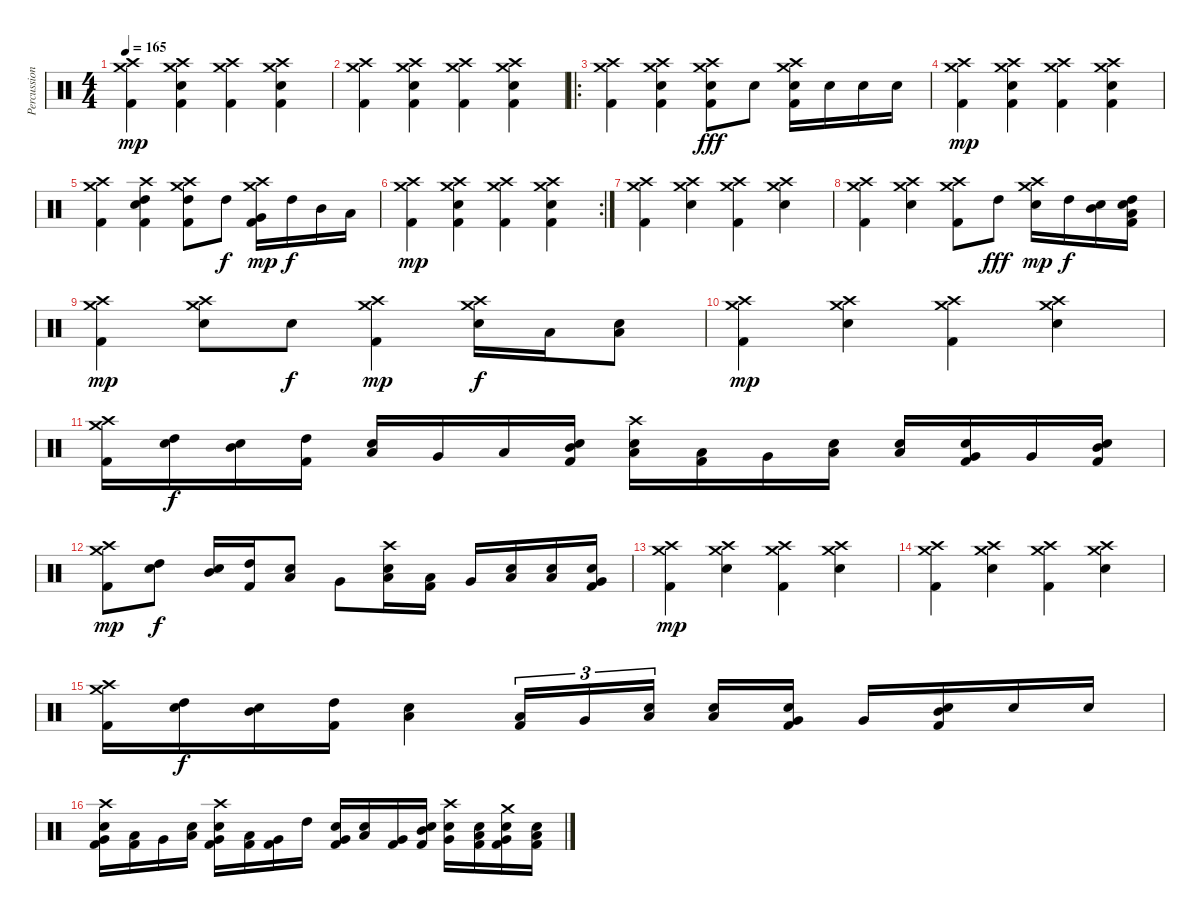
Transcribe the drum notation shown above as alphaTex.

\track ("Percussion" "Percussion") {instrument percussion}
\staff {score}
\articulation defaults
\ts (4 4)
\tempo 165
\clef neutral
\ks c
("Crash high (hit)" "Crash medium (hit)" "Kick (hit) 2").4{dy mp} ("Crash high (hit)" "Crash medium (hit)" "Snare (hit) 2" "Kick (hit) 2").4 ("Crash high (hit)" "Crash medium (hit)" "Kick (hit) 2").4 ("Crash high (hit)" "Crash medium (hit)" "Snare (hit) 2" "Kick (hit) 2").4 |
("Crash high (hit)" "Crash medium (hit)" "Kick (hit) 2").4 ("Crash high (hit)" "Crash medium (hit)" "Snare (hit) 2" "Kick (hit) 2").4 ("Crash high (hit)" "Crash medium (hit)" "Kick (hit) 2").4 ("Crash high (hit)" "Crash medium (hit)" "Snare (hit) 2" "Kick (hit) 2").4 |
\ro
("Crash high (hit)" "Crash medium (hit)" "Kick (hit) 2").4 ("Crash high (hit)" "Crash medium (hit)" "Snare (hit) 2" "Kick (hit) 2").4 ("Crash high (hit)" "Crash medium (hit)" "Snare (hit) 2" "Kick (hit) 2").8{dy fff} "Snare (hit) 2".8 ("Crash high (hit)" "Crash medium (hit)" "Snare (hit) 2" "Kick (hit) 2").16 "Snare (hit) 2".16 "Snare (hit) 2".16 "Snare (hit) 2".16 |
("Crash high (hit)" "Crash medium (hit)" "Kick (hit) 2").4{dy mp} ("Crash high (hit)" "Crash medium (hit)" "Snare (hit) 2" "Kick (hit) 2").4 ("Crash high (hit)" "Crash medium (hit)" "Kick (hit) 2").4 ("Crash high (hit)" "Crash medium (hit)" "Snare (hit) 2" "Kick (hit) 2").4 |
("Crash high (hit)" "Crash medium (hit)" "Kick (hit) 2").4 ("Crash high (hit)" "High Tom (hit)" "Snare (hit) 2" "Kick (hit) 2").4 ("Crash high (hit)" "Crash medium (hit)" "High Tom (hit)" "Kick (hit) 2").8 "High Tom (hit)".8{dy f} ("Crash high (hit)" "Crash medium (hit)" "Very Low Tom (hit)" "Kick (hit) 2").16{dy mp} "High Tom (hit)".16{dy f} "Mid Tom (hit)".16 "Low Tom (hit)".16 |
\rc 2
("Crash high (hit)" "Crash medium (hit)" "Kick (hit) 2").4{dy mp} ("Crash high (hit)" "Crash medium (hit)" "Snare (hit) 2" "Kick (hit) 2").4 ("Crash high (hit)" "Crash medium (hit)" "Kick (hit) 2").4 ("Crash high (hit)" "Crash medium (hit)" "Snare (hit) 2" "Kick (hit) 2").4 |
("Crash high (hit)" "Crash medium (hit)" "Kick (hit) 2").4 ("Crash high (hit)" "Crash medium (hit)" "Snare (hit) 2").4 ("Crash high (hit)" "Crash medium (hit)" "Kick (hit) 2").4 ("Crash high (hit)" "Crash medium (hit)" "Snare (hit) 2").4 |
("Crash high (hit)" "Crash medium (hit)" "Kick (hit) 2").4 ("Crash high (hit)" "Crash medium (hit)" "Snare (hit) 2").4 ("Crash high (hit)" "Crash medium (hit)" "Kick (hit) 2").8 "High Tom (hit)".8{dy fff} ("Crash high (hit)" "Crash medium (hit)" "Snare (hit) 2").16{dy mp} "High Tom (hit)".16{dy f} ("Mid Tom (hit)" "Snare (hit) 2").16 ("High Tom (hit)" "Snare (hit) 2" "Low Tom (hit)" "Kick (hit) 2").16 |
("Crash high (hit)" "Crash medium (hit)" "Kick (hit) 2").4{dy mp} ("Crash high (hit)" "Crash medium (hit)" "Snare (hit) 2").8 "Snare (hit) 2".8{dy f} ("Crash high (hit)" "Crash medium (hit)" "Kick (hit) 2").4{dy mp} ("Crash high (hit)" "Crash medium (hit)" "Snare (hit) 2").16{dy f} "Low Tom (hit)".16 ("Low Tom (hit)" "Snare (hit) 2").8 |
("Crash high (hit)" "Crash medium (hit)" "Kick (hit) 2").4{dy mp} ("Crash high (hit)" "Crash medium (hit)" "Snare (hit) 2").4 ("Crash high (hit)" "Crash medium (hit)" "Kick (hit) 2").4 ("Crash high (hit)" "Crash medium (hit)" "Snare (hit) 2").4 |
("Crash high (hit)" "Crash medium (hit)" "Kick (hit) 2").16 ("High Tom (hit)" "Snare (hit) 2").16{dy f} ("Mid Tom (hit)" "Snare (hit) 2").16 ("High Tom (hit)" "Kick (hit) 2").16 ("Low Tom (hit)" "Snare (hit) 2").16 "Very Low Tom (hit)".16 "Low Tom (hit)".16 ("Mid Tom (hit)" "Snare (hit) 2" "Kick (hit) 2").16 ("Crash high (hit)" "Low Tom (hit)" "Snare (hit) 2").16 ("Low Tom (hit)" "Kick (hit) 2").16 "Very Low Tom (hit)".16 ("Low Tom (hit)" "Snare (hit) 2").16 ("Low Tom (hit)" "Snare (hit) 2").16 ("Very Low Tom (hit)" "Snare (hit) 2" "Kick (hit) 2").16 "Very Low Tom (hit)".16 ("Mid Tom (hit)" "Snare (hit) 2" "Kick (hit) 2").16 |
("Crash high (hit)" "Crash medium (hit)" "Kick (hit) 2").8{dy mp} ("High Tom (hit)" "Snare (hit) 2").8{dy f} ("Mid Tom (hit)" "Snare (hit) 2").16 ("High Tom (hit)" "Kick (hit) 2").16 ("Low Tom (hit)" "Snare (hit) 2").8 "Very Low Tom (hit)".8 ("Crash high (hit)" "Low Tom (hit)" "Snare (hit) 2").16 ("Low Tom (hit)" "Kick (hit) 2").16 "Very Low Tom (hit)".16 ("Low Tom (hit)" "Snare (hit) 2").16 ("Low Tom (hit)" "Snare (hit) 2").16 ("Very Low Tom (hit)" "Snare (hit) 2" "Kick (hit) 2").16 |
("Crash high (hit)" "Crash medium (hit)" "Kick (hit) 2").4{dy mp} ("Crash high (hit)" "Crash medium (hit)" "Snare (hit) 2").4 ("Crash high (hit)" "Crash medium (hit)" "Kick (hit) 2").4 ("Crash high (hit)" "Crash medium (hit)" "Snare (hit) 2").4 |
("Crash high (hit)" "Crash medium (hit)" "Kick (hit) 2").4 ("Crash high (hit)" "Crash medium (hit)" "Snare (hit) 2").4 ("Crash high (hit)" "Crash medium (hit)" "Kick (hit) 2").4 ("Crash high (hit)" "Crash medium (hit)" "Snare (hit) 2").4 |
("Crash high (hit)" "Crash medium (hit)" "Kick (hit) 2").16 ("High Tom (hit)" "Snare (hit) 2").16{dy f} ("Mid Tom (hit)" "Snare (hit) 2").16 ("High Tom (hit)" "Kick (hit) 2").16 ("Low Tom (hit)" "Snare (hit) 2").4 ("Low Tom (hit)" "Kick (hit) 2").16{tu (3 2)} "Very Low Tom (hit)".16{tu (3 2)} ("Low Tom (hit)" "Snare (hit) 2").16{tu (3 2) beam splitsecondary} ("Low Tom (hit)" "Snare (hit) 2").16 ("Very Low Tom (hit)" "Snare (hit) 2" "Kick (hit) 2").16 "Very Low Tom (hit)".16 ("Mid Tom (hit)" "Snare (hit) 2" "Kick (hit) 2").16 "Snare (hit) 2".16 "Snare (hit) 2".16 |
("Crash high (hit)" "Very Low Tom (hit)" "Snare (hit) 2" "Kick (hit) 2").16 ("Low Tom (hit)" "Kick (hit) 2").16 "Very Low Tom (hit)".16 ("Low Tom (hit)" "Snare (hit) 2").16 ("Crash high (hit)" "Very Low Tom (hit)" "Snare (hit) 2" "Kick (hit) 2").16 ("Low Tom (hit)" "Kick (hit) 2").16 ("Very Low Tom (hit)" "Kick (hit) 2").16 "High Tom (hit)".16 ("Very Low Tom (hit)" "Snare (hit) 2" "Kick (hit) 2").16 ("Low Tom (hit)" "Snare (hit) 2").16 ("Very Low Tom (hit)" "Kick (hit) 2").16 ("Mid Tom (hit)" "Snare (hit) 2" "Kick (hit) 2").16 ("Crash high (hit)" "Very Low Tom (hit)" "Snare (hit) 2").16 ("Low Tom (hit)" "Snare (hit) 2" "Kick (hit) 2").16 ("Crash medium (hit)" "Very Low Tom (hit)" "Snare (hit) 2" "Kick (hit) 2").16 ("Low Tom (hit)" "Snare (hit) 2" "Kick (hit) 2").16
